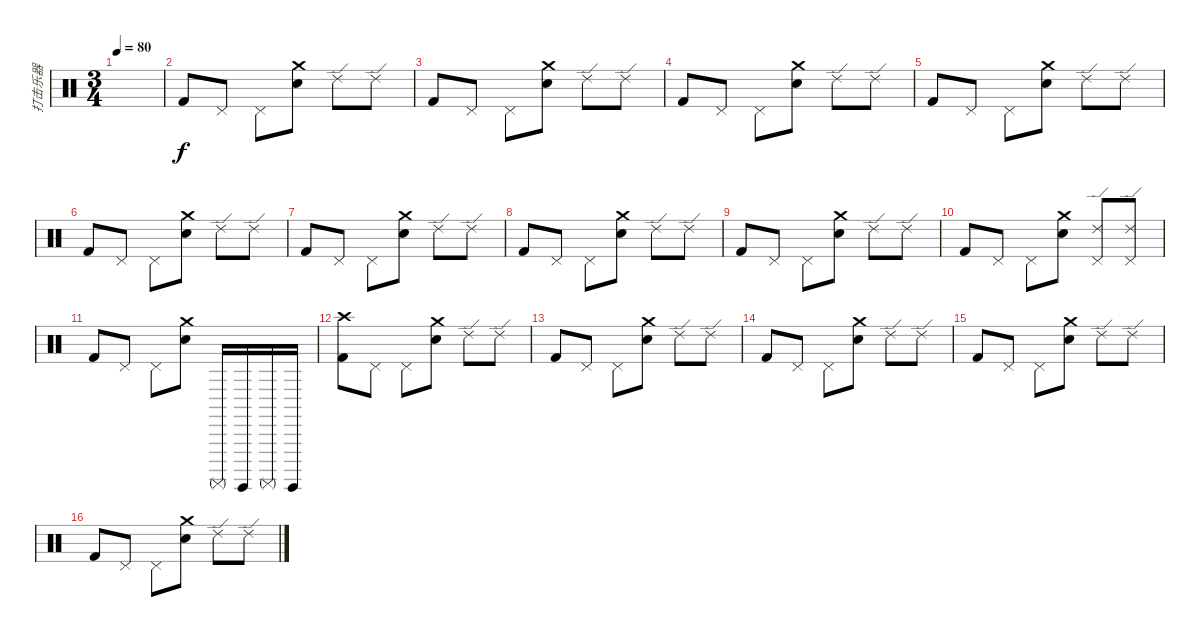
\track ("打击乐器" "打击乐器") {instrument percussion}
\staff {score}
\articulation defaults
\ts (3 4)
\tempo 80
\clef neutral
\ks c
|
"Kick (hit) 2".8{volume 12} "Pedal Hi-Hat (hit)".8 "Pedal Hi-Hat (hit)".8 ("Crash medium (hit)" "Snare (hit) 2").8{volume 12} "Ride (edge) 2".8 "Ride (edge) 2".8 |
"Kick (hit) 2".8 "Pedal Hi-Hat (hit)".8 "Pedal Hi-Hat (hit)".8 ("Crash medium (hit)" "Snare (hit) 2").8 "Ride (edge) 2".8 "Ride (edge) 2".8 |
"Kick (hit) 2".8 "Pedal Hi-Hat (hit)".8 "Pedal Hi-Hat (hit)".8 ("Crash medium (hit)" "Snare (hit) 2").8 "Ride (edge) 2".8 "Ride (edge) 2".8 |
"Kick (hit) 2".8 "Pedal Hi-Hat (hit)".8 "Pedal Hi-Hat (hit)".8 ("Crash medium (hit)" "Snare (hit) 2").8 "Ride (edge) 2".8 "Ride (edge) 2".8 |
"Kick (hit) 2".8 "Pedal Hi-Hat (hit)".8 "Pedal Hi-Hat (hit)".8 ("Crash medium (hit)" "Snare (hit) 2").8 "Ride (edge) 2".8 "Ride (edge) 2".8 |
"Kick (hit) 2".8 "Pedal Hi-Hat (hit)".8 "Pedal Hi-Hat (hit)".8 ("Crash medium (hit)" "Snare (hit) 2").8 "Ride (edge) 2".8 "Ride (edge) 2".8 |
"Kick (hit) 2".8 "Pedal Hi-Hat (hit)".8 "Pedal Hi-Hat (hit)".8 ("Crash medium (hit)" "Snare (hit) 2").8 "Ride (edge) 2".8 "Ride (edge) 2".8 |
"Kick (hit) 2".8 "Pedal Hi-Hat (hit)".8 "Pedal Hi-Hat (hit)".8 ("Crash medium (hit)" "Snare (hit) 2").8 "Ride (edge) 2".8 "Ride (edge) 2".8 |
"Kick (hit) 2".8 "Pedal Hi-Hat (hit)".8 "Pedal Hi-Hat (hit)".8 ("Crash medium (hit)" "Snare (hit) 2").8 ("Pedal Hi-Hat (hit)" "Ride (edge) 2").8 ("Pedal Hi-Hat (hit)" "Ride (edge) 2").8 |
"Kick (hit) 2".8 "Pedal Hi-Hat (hit)".8 "Pedal Hi-Hat (hit)".8 ("Crash medium (hit)" "Snare (hit) 2").8 "Surdo (mute)".16 "Surdo (hit)".16 "Surdo (mute)".16 "Surdo (hit)".16 |
("Crash high (hit)" "Kick (hit) 2").8 "Pedal Hi-Hat (hit)".8 "Pedal Hi-Hat (hit)".8 ("Crash medium (hit)" "Snare (hit) 2").8 "Ride (edge) 2".8 "Ride (edge) 2".8 |
"Kick (hit) 2".8 "Pedal Hi-Hat (hit)".8 "Pedal Hi-Hat (hit)".8 ("Crash medium (hit)" "Snare (hit) 2").8 "Ride (edge) 2".8 "Ride (edge) 2".8 |
"Kick (hit) 2".8 "Pedal Hi-Hat (hit)".8 "Pedal Hi-Hat (hit)".8 ("Crash medium (hit)" "Snare (hit) 2").8 "Ride (edge) 2".8 "Ride (edge) 2".8 |
"Kick (hit) 2".8 "Pedal Hi-Hat (hit)".8 "Pedal Hi-Hat (hit)".8 ("Crash medium (hit)" "Snare (hit) 2").8 "Ride (edge) 2".8 "Ride (edge) 2".8 |
"Kick (hit) 2".8 "Pedal Hi-Hat (hit)".8 "Pedal Hi-Hat (hit)".8 ("Crash medium (hit)" "Snare (hit) 2").8 "Ride (edge) 2".8 "Ride (edge) 2".8
